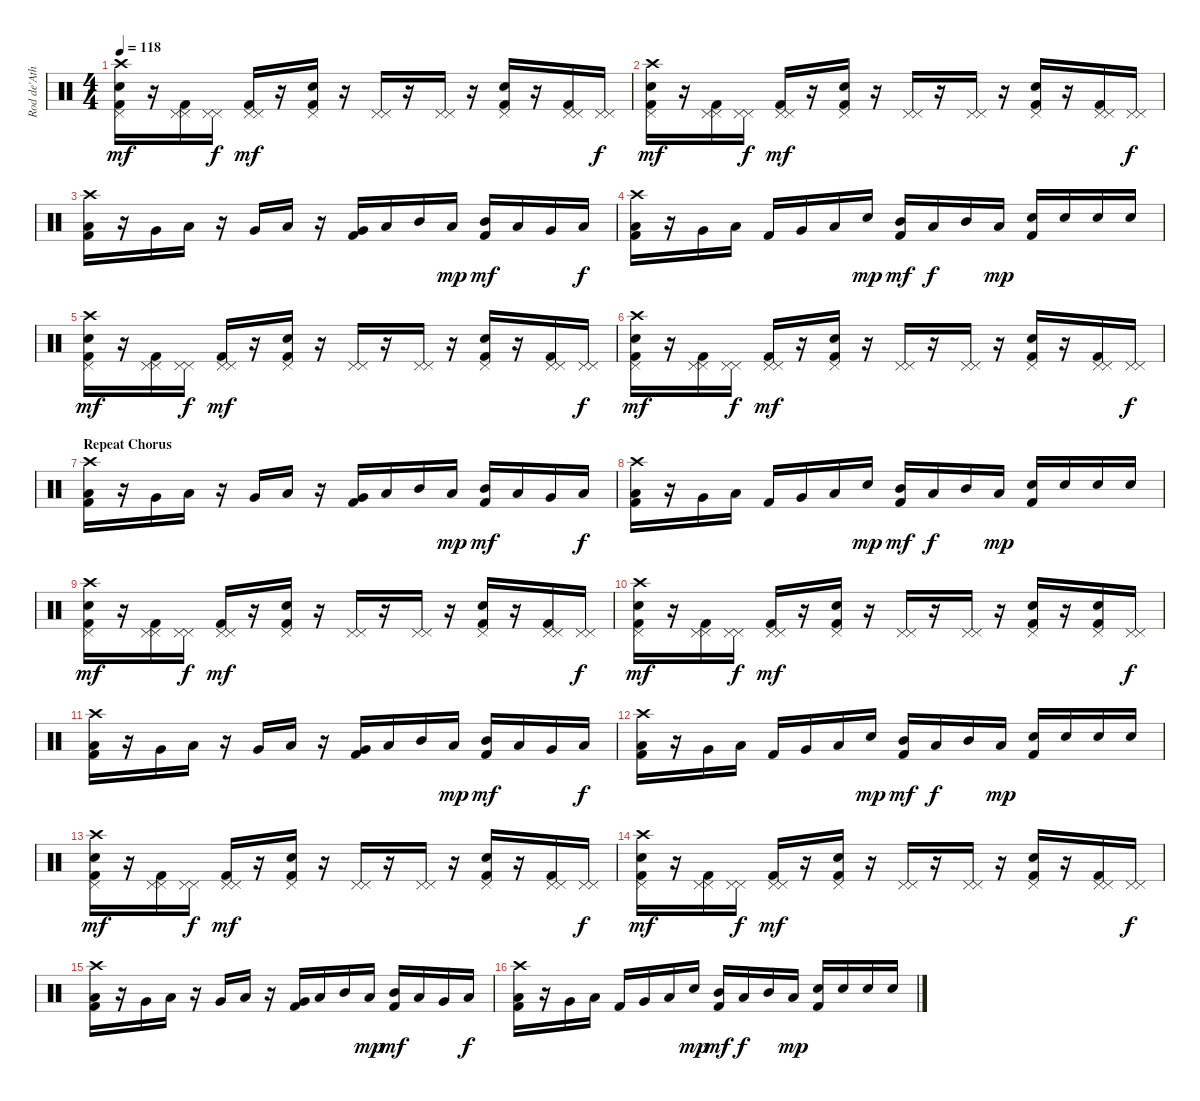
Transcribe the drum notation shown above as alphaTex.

\track ("Rod de'Ath" "Rod de'Ath") {instrument percussion}
\staff {score}
\articulation defaults
\ts (4 4)
\tempo 118
\clef neutral
\ks c
("Crash high (hit)" "Snare (hit) 2" "Pedal Hi-Hat (hit)" "Kick (hit) 2").16{dy mf} r.16 ("Pedal Hi-Hat (hit)" "Pedal Hi-Hat (hit)" "Kick (hit) 2").16 ("Pedal Hi-Hat (hit)" "Pedal Hi-Hat (hit)").16{dy f} ("Pedal Hi-Hat (hit)" "Pedal Hi-Hat (hit)" "Kick (hit) 2").16{dy mf} r.16 ("Snare (hit) 2" "Pedal Hi-Hat (hit)" "Kick (hit) 2").16 r.16 ("Pedal Hi-Hat (hit)" "Pedal Hi-Hat (hit)").16 r.16 ("Pedal Hi-Hat (hit)" "Pedal Hi-Hat (hit)").16 r.16 ("Snare (hit) 2" "Pedal Hi-Hat (hit)" "Kick (hit) 2").16 r.16 ("Pedal Hi-Hat (hit)" "Pedal Hi-Hat (hit)" "Kick (hit) 2").16 ("Pedal Hi-Hat (hit)" "Pedal Hi-Hat (hit)").16{dy f} |
("Crash high (hit)" "Snare (hit) 2" "Pedal Hi-Hat (hit)" "Kick (hit) 2").16{dy mf} r.16 ("Pedal Hi-Hat (hit)" "Pedal Hi-Hat (hit)" "Kick (hit) 2").16 ("Pedal Hi-Hat (hit)" "Pedal Hi-Hat (hit)").16{dy f} ("Pedal Hi-Hat (hit)" "Pedal Hi-Hat (hit)" "Kick (hit) 2").16{dy mf} r.16 ("Snare (hit) 2" "Pedal Hi-Hat (hit)" "Kick (hit) 2").16 r.16 ("Pedal Hi-Hat (hit)" "Pedal Hi-Hat (hit)").16 r.16 ("Pedal Hi-Hat (hit)" "Pedal Hi-Hat (hit)").16 r.16 ("Snare (hit) 2" "Pedal Hi-Hat (hit)" "Kick (hit) 2").16 r.16 ("Pedal Hi-Hat (hit)" "Pedal Hi-Hat (hit)" "Kick (hit) 2").16 ("Pedal Hi-Hat (hit)" "Pedal Hi-Hat (hit)").16{dy f} |
("Crash high (hit)" "Low Tom (hit)" "Kick (hit) 2").16 r.16 "Very Low Tom (hit)".16 "Low Tom (hit)".16 r.16 "Very Low Tom (hit)".16 "Low Tom (hit)".16 r.16 ("Very Low Tom (hit)" "Kick (hit) 2").16 "Low Tom (hit)".16 "Mid Tom (hit)".16 "Low Tom (hit)".16{dy mp} ("Mid Tom (hit)" "Kick (hit) 2").16{dy mf} "Low Tom (hit)".16 "Very Low Tom (hit)".16 "Low Tom (hit)".16{dy f} |
("Crash high (hit)" "Low Tom (hit)" "Kick (hit) 2").16 r.16 "Very Low Tom (hit)".16 "Low Tom (hit)".16 "Kick (hit) 2".16 "Very Low Tom (hit)".16 "Low Tom (hit)".16 "Snare (hit) 2".16{dy mp} ("Mid Tom (hit)" "Kick (hit) 2").16{dy mf} "Low Tom (hit)".16{dy f} "Mid Tom (hit)".16 "Low Tom (hit)".16{dy mp} ("Snare (hit) 2" "Kick (hit) 2").16 "Snare (hit) 2".16 "Snare (hit) 2".16 "Snare (hit) 2".16 |
("Crash high (hit)" "Snare (hit) 2" "Pedal Hi-Hat (hit)" "Kick (hit) 2").16{dy mf} r.16 ("Pedal Hi-Hat (hit)" "Pedal Hi-Hat (hit)" "Kick (hit) 2").16 ("Pedal Hi-Hat (hit)" "Pedal Hi-Hat (hit)").16{dy f} ("Pedal Hi-Hat (hit)" "Pedal Hi-Hat (hit)" "Kick (hit) 2").16{dy mf} r.16 ("Snare (hit) 2" "Pedal Hi-Hat (hit)" "Kick (hit) 2").16 r.16 ("Pedal Hi-Hat (hit)" "Pedal Hi-Hat (hit)").16 r.16 ("Pedal Hi-Hat (hit)" "Pedal Hi-Hat (hit)").16 r.16 ("Snare (hit) 2" "Pedal Hi-Hat (hit)" "Kick (hit) 2").16 r.16 ("Pedal Hi-Hat (hit)" "Pedal Hi-Hat (hit)" "Kick (hit) 2").16 ("Pedal Hi-Hat (hit)" "Pedal Hi-Hat (hit)").16{dy f} |
("Crash high (hit)" "Snare (hit) 2" "Pedal Hi-Hat (hit)" "Kick (hit) 2").16{dy mf} r.16 ("Pedal Hi-Hat (hit)" "Pedal Hi-Hat (hit)" "Kick (hit) 2").16 ("Pedal Hi-Hat (hit)" "Pedal Hi-Hat (hit)").16{dy f} ("Pedal Hi-Hat (hit)" "Pedal Hi-Hat (hit)" "Kick (hit) 2").16{dy mf} r.16 ("Snare (hit) 2" "Pedal Hi-Hat (hit)" "Kick (hit) 2").16 r.16 ("Pedal Hi-Hat (hit)" "Pedal Hi-Hat (hit)").16 r.16 ("Pedal Hi-Hat (hit)" "Pedal Hi-Hat (hit)").16 r.16 ("Snare (hit) 2" "Pedal Hi-Hat (hit)" "Kick (hit) 2").16 r.16 ("Pedal Hi-Hat (hit)" "Pedal Hi-Hat (hit)" "Kick (hit) 2").16 ("Pedal Hi-Hat (hit)" "Pedal Hi-Hat (hit)").16{dy f} |
\section ("" "Repeat Chorus")
("Crash high (hit)" "Low Tom (hit)" "Kick (hit) 2").16 r.16 "Very Low Tom (hit)".16 "Low Tom (hit)".16 r.16 "Very Low Tom (hit)".16 "Low Tom (hit)".16 r.16 ("Very Low Tom (hit)" "Kick (hit) 2").16 "Low Tom (hit)".16 "Mid Tom (hit)".16 "Low Tom (hit)".16{dy mp} ("Mid Tom (hit)" "Kick (hit) 2").16{dy mf} "Low Tom (hit)".16 "Very Low Tom (hit)".16 "Low Tom (hit)".16{dy f} |
("Crash high (hit)" "Low Tom (hit)" "Kick (hit) 2").16 r.16 "Very Low Tom (hit)".16 "Low Tom (hit)".16 "Kick (hit) 2".16 "Very Low Tom (hit)".16 "Low Tom (hit)".16 "Snare (hit) 2".16{dy mp} ("Mid Tom (hit)" "Kick (hit) 2").16{dy mf} "Low Tom (hit)".16{dy f} "Mid Tom (hit)".16 "Low Tom (hit)".16{dy mp} ("Snare (hit) 2" "Kick (hit) 2").16 "Snare (hit) 2".16 "Snare (hit) 2".16 "Snare (hit) 2".16 |
("Crash high (hit)" "Snare (hit) 2" "Pedal Hi-Hat (hit)" "Kick (hit) 2").16{dy mf} r.16 ("Pedal Hi-Hat (hit)" "Pedal Hi-Hat (hit)" "Kick (hit) 2").16 ("Pedal Hi-Hat (hit)" "Pedal Hi-Hat (hit)").16{dy f} ("Pedal Hi-Hat (hit)" "Pedal Hi-Hat (hit)" "Kick (hit) 2").16{dy mf} r.16 ("Snare (hit) 2" "Pedal Hi-Hat (hit)" "Kick (hit) 2").16 r.16 ("Pedal Hi-Hat (hit)" "Pedal Hi-Hat (hit)").16 r.16 ("Pedal Hi-Hat (hit)" "Pedal Hi-Hat (hit)").16 r.16 ("Snare (hit) 2" "Pedal Hi-Hat (hit)" "Kick (hit) 2").16 r.16 ("Pedal Hi-Hat (hit)" "Pedal Hi-Hat (hit)" "Kick (hit) 2").16 ("Pedal Hi-Hat (hit)" "Pedal Hi-Hat (hit)").16{dy f} |
("Crash high (hit)" "Snare (hit) 2" "Pedal Hi-Hat (hit)" "Kick (hit) 2").16{dy mf} r.16 ("Pedal Hi-Hat (hit)" "Pedal Hi-Hat (hit)" "Kick (hit) 2").16 ("Pedal Hi-Hat (hit)" "Pedal Hi-Hat (hit)").16{dy f} ("Pedal Hi-Hat (hit)" "Pedal Hi-Hat (hit)" "Kick (hit) 2").16{dy mf} r.16 ("Snare (hit) 2" "Pedal Hi-Hat (hit)" "Kick (hit) 2").16 r.16 ("Pedal Hi-Hat (hit)" "Pedal Hi-Hat (hit)").16 r.16 ("Pedal Hi-Hat (hit)" "Pedal Hi-Hat (hit)").16 r.16 ("Snare (hit) 2" "Pedal Hi-Hat (hit)" "Kick (hit) 2").16 r.16 ("Snare (hit) 2" "Pedal Hi-Hat (hit)" "Kick (hit) 2").16 ("Pedal Hi-Hat (hit)" "Pedal Hi-Hat (hit)").16{dy f} |
("Crash high (hit)" "Low Tom (hit)" "Kick (hit) 2").16 r.16 "Very Low Tom (hit)".16 "Low Tom (hit)".16 r.16 "Very Low Tom (hit)".16 "Low Tom (hit)".16 r.16 ("Very Low Tom (hit)" "Kick (hit) 2").16 "Low Tom (hit)".16 "Mid Tom (hit)".16 "Low Tom (hit)".16{dy mp} ("Mid Tom (hit)" "Kick (hit) 2").16{dy mf} "Low Tom (hit)".16 "Very Low Tom (hit)".16 "Low Tom (hit)".16{dy f} |
("Crash high (hit)" "Low Tom (hit)" "Kick (hit) 2").16 r.16 "Very Low Tom (hit)".16 "Low Tom (hit)".16 "Kick (hit) 2".16 "Very Low Tom (hit)".16 "Low Tom (hit)".16 "Snare (hit) 2".16{dy mp} ("Mid Tom (hit)" "Kick (hit) 2").16{dy mf} "Low Tom (hit)".16{dy f} "Mid Tom (hit)".16 "Low Tom (hit)".16{dy mp} ("Snare (hit) 2" "Kick (hit) 2").16 "Snare (hit) 2".16 "Snare (hit) 2".16 "Snare (hit) 2".16 |
("Crash high (hit)" "Snare (hit) 2" "Pedal Hi-Hat (hit)" "Kick (hit) 2").16{dy mf} r.16 ("Pedal Hi-Hat (hit)" "Pedal Hi-Hat (hit)" "Kick (hit) 2").16 ("Pedal Hi-Hat (hit)" "Pedal Hi-Hat (hit)").16{dy f} ("Pedal Hi-Hat (hit)" "Pedal Hi-Hat (hit)" "Kick (hit) 2").16{dy mf} r.16 ("Snare (hit) 2" "Pedal Hi-Hat (hit)" "Kick (hit) 2").16 r.16 ("Pedal Hi-Hat (hit)" "Pedal Hi-Hat (hit)").16 r.16 ("Pedal Hi-Hat (hit)" "Pedal Hi-Hat (hit)").16 r.16 ("Snare (hit) 2" "Pedal Hi-Hat (hit)" "Kick (hit) 2").16 r.16 ("Pedal Hi-Hat (hit)" "Pedal Hi-Hat (hit)" "Kick (hit) 2").16 ("Pedal Hi-Hat (hit)" "Pedal Hi-Hat (hit)").16{dy f} |
("Crash high (hit)" "Snare (hit) 2" "Pedal Hi-Hat (hit)" "Kick (hit) 2").16{dy mf} r.16 ("Pedal Hi-Hat (hit)" "Pedal Hi-Hat (hit)" "Kick (hit) 2").16 ("Pedal Hi-Hat (hit)" "Pedal Hi-Hat (hit)").16{dy f} ("Pedal Hi-Hat (hit)" "Pedal Hi-Hat (hit)" "Kick (hit) 2").16{dy mf} r.16 ("Snare (hit) 2" "Pedal Hi-Hat (hit)" "Kick (hit) 2").16 r.16 ("Pedal Hi-Hat (hit)" "Pedal Hi-Hat (hit)").16 r.16 ("Pedal Hi-Hat (hit)" "Pedal Hi-Hat (hit)").16 r.16 ("Snare (hit) 2" "Pedal Hi-Hat (hit)" "Kick (hit) 2").16 r.16 ("Pedal Hi-Hat (hit)" "Pedal Hi-Hat (hit)" "Kick (hit) 2").16 ("Pedal Hi-Hat (hit)" "Pedal Hi-Hat (hit)").16{dy f} |
("Crash high (hit)" "Low Tom (hit)" "Kick (hit) 2").16 r.16 "Very Low Tom (hit)".16 "Low Tom (hit)".16 r.16 "Very Low Tom (hit)".16 "Low Tom (hit)".16 r.16 ("Very Low Tom (hit)" "Kick (hit) 2").16 "Low Tom (hit)".16 "Mid Tom (hit)".16 "Low Tom (hit)".16{dy mp} ("Mid Tom (hit)" "Kick (hit) 2").16{dy mf} "Low Tom (hit)".16 "Very Low Tom (hit)".16 "Low Tom (hit)".16{dy f} |
("Crash high (hit)" "Low Tom (hit)" "Kick (hit) 2").16 r.16 "Very Low Tom (hit)".16 "Low Tom (hit)".16 "Kick (hit) 2".16 "Very Low Tom (hit)".16 "Low Tom (hit)".16 "Snare (hit) 2".16{dy mp} ("Mid Tom (hit)" "Kick (hit) 2").16{dy mf} "Low Tom (hit)".16{dy f} "Mid Tom (hit)".16 "Low Tom (hit)".16{dy mp} ("Snare (hit) 2" "Kick (hit) 2").16 "Snare (hit) 2".16 "Snare (hit) 2".16 "Snare (hit) 2".16
